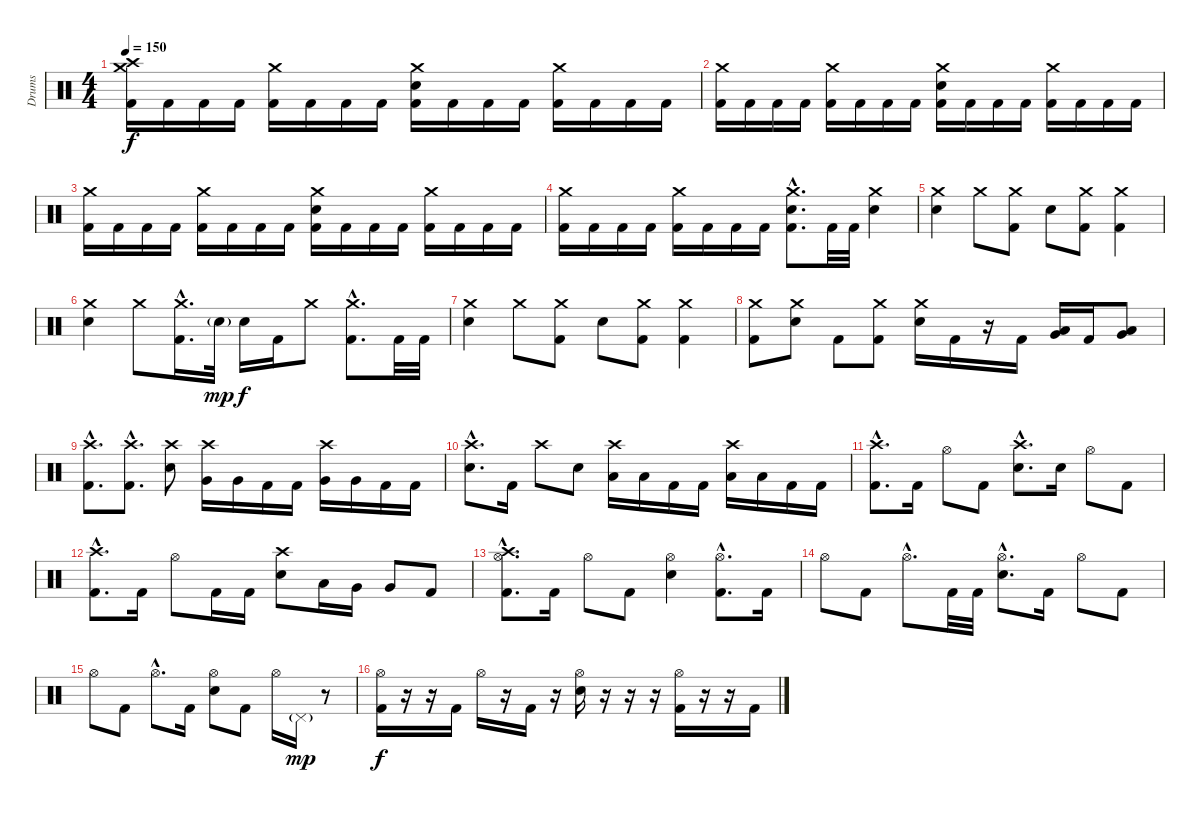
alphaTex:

\track ("Drums" "Drums") {instrument percussion}
\staff {score}
\articulation defaults
\ts (4 4)
\tempo 150
\clef neutral
\ks c
("Crash medium (hit)" "Crash high (hit)" "Kick (hit) 2").16{dy f} "Kick (hit) 2".16 "Kick (hit) 2".16 "Kick (hit) 2".16 ("Crash medium (hit)" "Kick (hit) 2").16 "Kick (hit) 2".16 "Kick (hit) 2".16 "Kick (hit) 2".16 ("Crash medium (hit)" "Snare (hit) 2" "Kick (hit) 2").16 "Kick (hit) 2".16 "Kick (hit) 2".16 "Kick (hit) 2".16 ("Crash medium (hit)" "Kick (hit) 2").16 "Kick (hit) 2".16 "Kick (hit) 2".16 "Kick (hit) 2".16 |
("Crash medium (hit)" "Kick (hit) 2").16 "Kick (hit) 2".16 "Kick (hit) 2".16 "Kick (hit) 2".16 ("Crash medium (hit)" "Kick (hit) 2").16 "Kick (hit) 2".16 "Kick (hit) 2".16 "Kick (hit) 2".16 ("Crash medium (hit)" "Snare (hit) 2" "Kick (hit) 2").16 "Kick (hit) 2".16 "Kick (hit) 2".16 "Kick (hit) 2".16 ("Crash medium (hit)" "Kick (hit) 2").16 "Kick (hit) 2".16 "Kick (hit) 2".16 "Kick (hit) 2".16 |
("Crash medium (hit)" "Kick (hit) 2").16 "Kick (hit) 2".16 "Kick (hit) 2".16 "Kick (hit) 2".16 ("Crash medium (hit)" "Kick (hit) 2").16 "Kick (hit) 2".16 "Kick (hit) 2".16 "Kick (hit) 2".16 ("Crash medium (hit)" "Snare (hit) 2" "Kick (hit) 2").16 "Kick (hit) 2".16 "Kick (hit) 2".16 "Kick (hit) 2".16 ("Crash medium (hit)" "Kick (hit) 2").16 "Kick (hit) 2".16 "Kick (hit) 2".16 "Kick (hit) 2".16 |
("Crash medium (hit)" "Kick (hit) 2").16 "Kick (hit) 2".16 "Kick (hit) 2".16 "Kick (hit) 2".16 ("Crash medium (hit)" "Kick (hit) 2").16 "Kick (hit) 2".16 "Kick (hit) 2".16 "Kick (hit) 2".16 ("Crash medium (hit)"{hac} "Snare (hit) 2"{hac} "Kick (hit) 2"{hac}).8{d} "Kick (hit) 2".32 "Kick (hit) 2".32 ("Crash medium (hit)" "Snare (hit) 2").4 |
("Crash medium (hit)" "Snare (hit) 2").4 "Crash medium (hit)".8 ("Crash medium (hit)" "Kick (hit) 2").8 "Snare (hit) 2".8 ("Crash medium (hit)" "Kick (hit) 2").8 ("Crash medium (hit)" "Kick (hit) 2").4 |
("Crash medium (hit)" "Snare (hit) 2").4 "Crash medium (hit)".8 ("Crash medium (hit)"{hac} "Kick (hit) 2"{hac}).16{d} "Snare (hit) 2"{g}.32{dy mp} "Snare (hit) 2".16{dy f} "Kick (hit) 2".16 "Crash medium (hit)".8 ("Crash medium (hit)"{hac} "Kick (hit) 2"{hac}).8{d} "Kick (hit) 2".32 "Kick (hit) 2".32 |
("Crash medium (hit)" "Snare (hit) 2").4 "Crash medium (hit)".8 ("Crash medium (hit)" "Kick (hit) 2").8 "Snare (hit) 2".8 ("Crash medium (hit)" "Kick (hit) 2").8 ("Crash medium (hit)" "Kick (hit) 2").4 |
("Crash medium (hit)" "Kick (hit) 2").8 ("Crash medium (hit)" "Snare (hit) 2").8 "Kick (hit) 2".8 ("Crash medium (hit)" "Kick (hit) 2").8 ("Crash medium (hit)" "Snare (hit) 2").16 "Kick (hit) 2".16 r.16 "Kick (hit) 2".16 ("Very Low Tom (hit)" "Low Tom (hit)").16 "Kick (hit) 2".16 ("Low Floor Tom (hit)" "Very Low Tom (hit)").8 |
("Crash high (hit)"{hac} "Kick (hit) 2"{hac}).8{d} ("Crash high (hit)"{hac} "Kick (hit) 2"{hac}).8{d} ("Crash high (hit)" "Snare (hit) 2").8 ("Crash high (hit)" "Very Low Tom (hit)").16 "Very Low Tom (hit)".16 "Kick (hit) 2".16 "Kick (hit) 2".16 ("Crash high (hit)" "Very Low Tom (hit)").16 "Very Low Tom (hit)".16 "Kick (hit) 2".16 "Kick (hit) 2".16 |
("Crash high (hit)"{hac} "Snare (hit) 2"{hac}).8{d} "Kick (hit) 2".16 "Crash high (hit)".8 "Snare (hit) 2".8 ("Crash high (hit)" "Low Tom (hit)").16 "Low Tom (hit)".16 "Kick (hit) 2".16 "Kick (hit) 2".16 ("Crash high (hit)" "Low Floor Tom (hit)").16 "Low Floor Tom (hit)".16 "Kick (hit) 2".16 "Kick (hit) 2".16 |
("Crash high (hit)"{hac} "Kick (hit) 2"{hac}).8{d} "Kick (hit) 2".16 "Hi-Hat (open)".8 "Kick (hit) 2".8 ("Crash high (hit)"{hac} "Snare (hit) 2"{hac}).8{d} "Snare (hit) 2".16 "Hi-Hat (open)".8 "Kick (hit) 2".8 |
("Crash high (hit)"{hac} "Kick (hit) 2"{hac}).8{d} "Kick (hit) 2".16 "Hi-Hat (open)".8 "Kick (hit) 2".16 "Kick (hit) 2".16 ("Crash high (hit)" "Snare (hit) 2").8 "Low Tom (hit)".16 "Very Low Tom (hit)".16 "Very Low Tom (hit)".8 "Kick (hit) 2".8 |
("Crash high (hit)"{hac} "Hi-Hat (open)"{hac} "Kick (hit) 2"{hac}).8{d} "Kick (hit) 2".16 "Hi-Hat (open)".8 "Kick (hit) 2".8 ("Hi-Hat (open)" "Snare (hit) 2").4 ("Hi-Hat (open)"{hac} "Kick (hit) 2"{hac}).8{d} "Kick (hit) 2".16 |
"Hi-Hat (open)".8 "Kick (hit) 2".8 "Hi-Hat (open)"{hac}.8{d} "Kick (hit) 2".32 "Kick (hit) 2".32 ("Hi-Hat (open)"{hac} "Snare (hit) 2"{hac}).8{d} "Kick (hit) 2".16 "Hi-Hat (open)".8 "Kick (hit) 2".8 |
"Hi-Hat (open)".8 "Kick (hit) 2".8 "Hi-Hat (open)"{hac}.8{d} "Kick (hit) 2".16 ("Hi-Hat (open)" "Snare (hit) 2").8 "Kick (hit) 2".8 "Hi-Hat (open)".16 "Pedal Hi-Hat (hit)"{g}.16{dy mp} r.8 |
("Hi-Hat (open)" "Kick (hit) 2").16{dy f} r.16 r.16 "Kick (hit) 2".16 "Hi-Hat (open)".16 r.16 "Kick (hit) 2".16 r.16 ("Hi-Hat (open)" "Snare (hit) 2").16 r.16 r.16 r.16 ("Hi-Hat (open)" "Kick (hit) 2").16 r.16 r.16 "Kick (hit) 2".16
